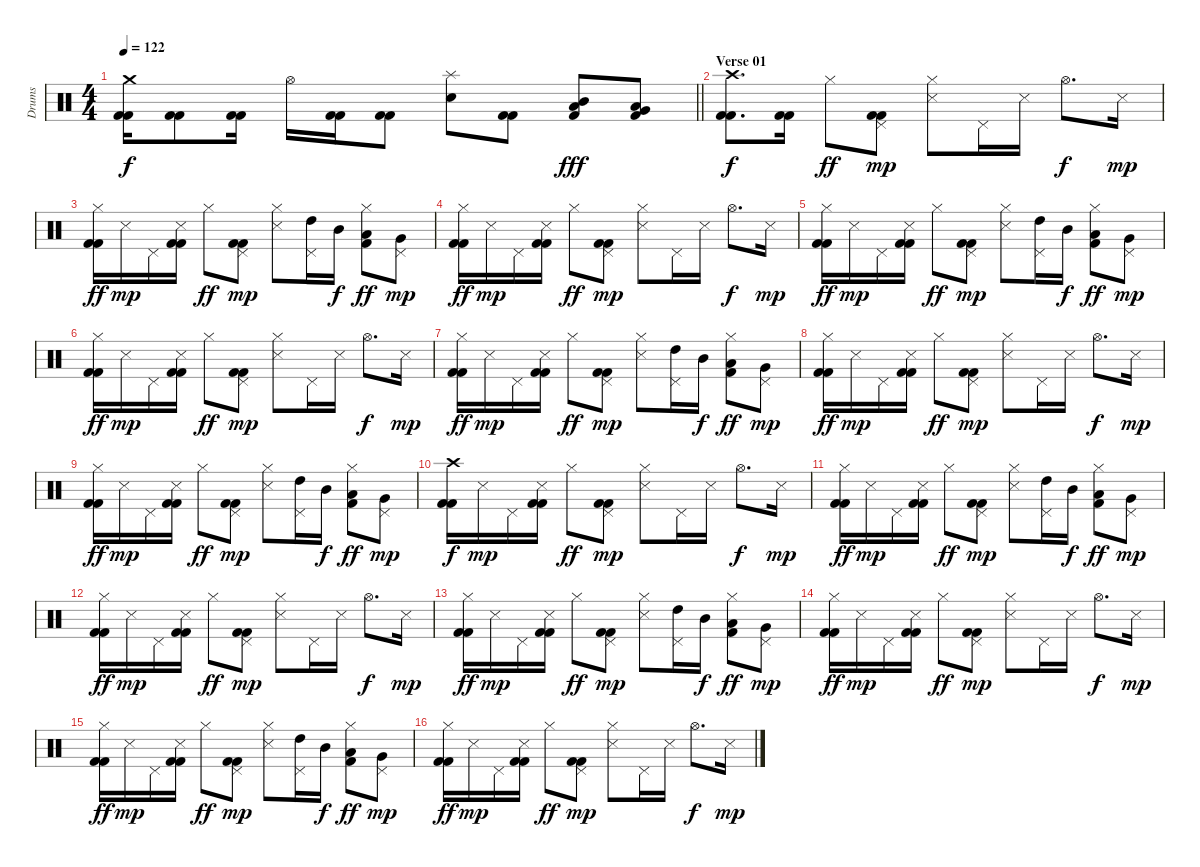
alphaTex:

\track ("Drums" "Drums") {instrument percussion}
\staff {score}
\articulation defaults
\ts (4 4)
\tempo 122
\clef neutral
\barLineRight lightlight
\ks c
("Crash medium (hit)" "Kick (hit) 2" "Kick (hit) 2").16{dy f} ("Kick (hit) 2" "Kick (hit) 2").8 ("Kick (hit) 2" "Kick (hit) 2").16 "Hi-Hat (open)".16 ("Kick (hit) 2" "Kick (hit) 2").16 ("Kick (hit) 2" "Kick (hit) 2").8 ("Splash (hit)" "Electric Snare (hit)").8 ("Kick (hit) 2" "Kick (hit) 2").8 ("Mid Tom (hit)" "Low Tom (hit)" "Kick (hit) 2").8{dy fff} ("Low Tom (hit)" "Very Low Tom (hit)" "Kick (hit) 2").8 |
\section ("" "Verse 01")
("Crash high (hit)" "Kick (hit) 2" "Kick (hit) 2").8{d dy f} ("Kick (hit) 2" "Kick (hit) 2").16 "Hi-Hat (closed)".8{dy ff} ("Pedal Hi-Hat (hit)" "Kick (hit) 2" "Kick (hit) 2").8{dy mp} ("Hi-Hat (closed)" "Snare (side stick) 3").8 "Pedal Hi-Hat (hit)".16 "Snare (side stick) 3".16 "Hi-Hat (open)".8{d dy f} "Snare (side stick) 3".16{dy mp} |
("Hi-Hat (closed)" "Kick (hit) 2" "Kick (hit) 2").16{dy ff} "Snare (side stick) 3".16{dy mp} "Pedal Hi-Hat (hit)".16 ("Snare (side stick) 3" "Kick (hit) 2" "Kick (hit) 2").16 "Hi-Hat (closed)".8{dy ff} ("Pedal Hi-Hat (hit)" "Kick (hit) 2" "Kick (hit) 2").8{dy mp} ("Hi-Hat (closed)" "Snare (side stick) 3").8 ("Pedal Hi-Hat (hit)" "High Tom (hit)").16 "Mid Tom (hit)".16{dy f} ("Hi-Hat (closed)" "Low Tom (hit)" "Kick (hit) 2").8{dy ff} ("Pedal Hi-Hat (hit)" "Very Low Tom (hit)").8{dy mp} |
("Hi-Hat (closed)" "Kick (hit) 2" "Kick (hit) 2").16{dy ff} "Snare (side stick) 3".16{dy mp} "Pedal Hi-Hat (hit)".16 ("Snare (side stick) 3" "Kick (hit) 2" "Kick (hit) 2").16 "Hi-Hat (closed)".8{dy ff} ("Pedal Hi-Hat (hit)" "Kick (hit) 2" "Kick (hit) 2").8{dy mp} ("Hi-Hat (closed)" "Snare (side stick) 3").8 "Pedal Hi-Hat (hit)".16 "Snare (side stick) 3".16 "Hi-Hat (open)".8{d dy f} "Snare (side stick) 3".16{dy mp} |
("Hi-Hat (closed)" "Kick (hit) 2" "Kick (hit) 2").16{dy ff} "Snare (side stick) 3".16{dy mp} "Pedal Hi-Hat (hit)".16 ("Snare (side stick) 3" "Kick (hit) 2" "Kick (hit) 2").16 "Hi-Hat (closed)".8{dy ff} ("Pedal Hi-Hat (hit)" "Kick (hit) 2" "Kick (hit) 2").8{dy mp} ("Hi-Hat (closed)" "Snare (side stick) 3").8 ("Pedal Hi-Hat (hit)" "High Tom (hit)").16 "Mid Tom (hit)".16{dy f} ("Hi-Hat (closed)" "Low Tom (hit)" "Kick (hit) 2").8{dy ff} ("Pedal Hi-Hat (hit)" "Very Low Tom (hit)").8{dy mp} |
("Hi-Hat (closed)" "Kick (hit) 2" "Kick (hit) 2").16{dy ff} "Snare (side stick) 3".16{dy mp} "Pedal Hi-Hat (hit)".16 ("Snare (side stick) 3" "Kick (hit) 2" "Kick (hit) 2").16 "Hi-Hat (closed)".8{dy ff} ("Pedal Hi-Hat (hit)" "Kick (hit) 2" "Kick (hit) 2").8{dy mp} ("Hi-Hat (closed)" "Snare (side stick) 3").8 "Pedal Hi-Hat (hit)".16 "Snare (side stick) 3".16 "Hi-Hat (open)".8{d dy f} "Snare (side stick) 3".16{dy mp} |
("Hi-Hat (closed)" "Kick (hit) 2" "Kick (hit) 2").16{dy ff} "Snare (side stick) 3".16{dy mp} "Pedal Hi-Hat (hit)".16 ("Snare (side stick) 3" "Kick (hit) 2" "Kick (hit) 2").16 "Hi-Hat (closed)".8{dy ff} ("Pedal Hi-Hat (hit)" "Kick (hit) 2" "Kick (hit) 2").8{dy mp} ("Hi-Hat (closed)" "Snare (side stick) 3").8 ("Pedal Hi-Hat (hit)" "High Tom (hit)").16 "Mid Tom (hit)".16{dy f} ("Hi-Hat (closed)" "Low Tom (hit)" "Kick (hit) 2").8{dy ff} ("Pedal Hi-Hat (hit)" "Very Low Tom (hit)").8{dy mp} |
("Hi-Hat (closed)" "Kick (hit) 2" "Kick (hit) 2").16{dy ff} "Snare (side stick) 3".16{dy mp} "Pedal Hi-Hat (hit)".16 ("Snare (side stick) 3" "Kick (hit) 2" "Kick (hit) 2").16 "Hi-Hat (closed)".8{dy ff} ("Pedal Hi-Hat (hit)" "Kick (hit) 2" "Kick (hit) 2").8{dy mp} ("Hi-Hat (closed)" "Snare (side stick) 3").8 "Pedal Hi-Hat (hit)".16 "Snare (side stick) 3".16 "Hi-Hat (open)".8{d dy f} "Snare (side stick) 3".16{dy mp} |
("Hi-Hat (closed)" "Kick (hit) 2" "Kick (hit) 2").16{dy ff} "Snare (side stick) 3".16{dy mp} "Pedal Hi-Hat (hit)".16 ("Snare (side stick) 3" "Kick (hit) 2" "Kick (hit) 2").16 "Hi-Hat (closed)".8{dy ff} ("Pedal Hi-Hat (hit)" "Kick (hit) 2" "Kick (hit) 2").8{dy mp} ("Hi-Hat (closed)" "Snare (side stick) 3").8 ("Pedal Hi-Hat (hit)" "High Tom (hit)").16 "Mid Tom (hit)".16{dy f} ("Hi-Hat (closed)" "Low Tom (hit)" "Kick (hit) 2").8{dy ff} ("Pedal Hi-Hat (hit)" "Very Low Tom (hit)").8{dy mp} |
("Crash high (hit)" "Kick (hit) 2" "Kick (hit) 2").16{dy f} "Snare (side stick) 3".16{dy mp} "Pedal Hi-Hat (hit)".16 ("Snare (side stick) 3" "Kick (hit) 2" "Kick (hit) 2").16 "Hi-Hat (closed)".8{dy ff} ("Pedal Hi-Hat (hit)" "Kick (hit) 2" "Kick (hit) 2").8{dy mp} ("Hi-Hat (closed)" "Snare (side stick) 3").8 "Pedal Hi-Hat (hit)".16 "Snare (side stick) 3".16 "Hi-Hat (open)".8{d dy f} "Snare (side stick) 3".16{dy mp} |
("Hi-Hat (closed)" "Kick (hit) 2" "Kick (hit) 2").16{dy ff} "Snare (side stick) 3".16{dy mp} "Pedal Hi-Hat (hit)".16 ("Snare (side stick) 3" "Kick (hit) 2" "Kick (hit) 2").16 "Hi-Hat (closed)".8{dy ff} ("Pedal Hi-Hat (hit)" "Kick (hit) 2" "Kick (hit) 2").8{dy mp} ("Hi-Hat (closed)" "Snare (side stick) 3").8 ("Pedal Hi-Hat (hit)" "High Tom (hit)").16 "Mid Tom (hit)".16{dy f} ("Hi-Hat (closed)" "Low Tom (hit)" "Kick (hit) 2").8{dy ff} ("Pedal Hi-Hat (hit)" "Very Low Tom (hit)").8{dy mp} |
("Hi-Hat (closed)" "Kick (hit) 2" "Kick (hit) 2").16{dy ff} "Snare (side stick) 3".16{dy mp} "Pedal Hi-Hat (hit)".16 ("Snare (side stick) 3" "Kick (hit) 2" "Kick (hit) 2").16 "Hi-Hat (closed)".8{dy ff} ("Pedal Hi-Hat (hit)" "Kick (hit) 2" "Kick (hit) 2").8{dy mp} ("Hi-Hat (closed)" "Snare (side stick) 3").8 "Pedal Hi-Hat (hit)".16 "Snare (side stick) 3".16 "Hi-Hat (open)".8{d dy f} "Snare (side stick) 3".16{dy mp} |
("Hi-Hat (closed)" "Kick (hit) 2" "Kick (hit) 2").16{dy ff} "Snare (side stick) 3".16{dy mp} "Pedal Hi-Hat (hit)".16 ("Snare (side stick) 3" "Kick (hit) 2" "Kick (hit) 2").16 "Hi-Hat (closed)".8{dy ff} ("Pedal Hi-Hat (hit)" "Kick (hit) 2" "Kick (hit) 2").8{dy mp} ("Hi-Hat (closed)" "Snare (side stick) 3").8 ("Pedal Hi-Hat (hit)" "High Tom (hit)").16 "Mid Tom (hit)".16{dy f} ("Hi-Hat (closed)" "Low Tom (hit)" "Kick (hit) 2").8{dy ff} ("Pedal Hi-Hat (hit)" "Very Low Tom (hit)").8{dy mp} |
("Hi-Hat (closed)" "Kick (hit) 2" "Kick (hit) 2").16{dy ff} "Snare (side stick) 3".16{dy mp} "Pedal Hi-Hat (hit)".16 ("Snare (side stick) 3" "Kick (hit) 2" "Kick (hit) 2").16 "Hi-Hat (closed)".8{dy ff} ("Pedal Hi-Hat (hit)" "Kick (hit) 2" "Kick (hit) 2").8{dy mp} ("Hi-Hat (closed)" "Snare (side stick) 3").8 "Pedal Hi-Hat (hit)".16 "Snare (side stick) 3".16 "Hi-Hat (open)".8{d dy f} "Snare (side stick) 3".16{dy mp} |
("Hi-Hat (closed)" "Kick (hit) 2" "Kick (hit) 2").16{dy ff} "Snare (side stick) 3".16{dy mp} "Pedal Hi-Hat (hit)".16 ("Snare (side stick) 3" "Kick (hit) 2" "Kick (hit) 2").16 "Hi-Hat (closed)".8{dy ff} ("Pedal Hi-Hat (hit)" "Kick (hit) 2" "Kick (hit) 2").8{dy mp} ("Hi-Hat (closed)" "Snare (side stick) 3").8 ("Pedal Hi-Hat (hit)" "High Tom (hit)").16 "Mid Tom (hit)".16{dy f} ("Hi-Hat (closed)" "Low Tom (hit)" "Kick (hit) 2").8{dy ff} ("Pedal Hi-Hat (hit)" "Very Low Tom (hit)").8{dy mp} |
("Hi-Hat (closed)" "Kick (hit) 2" "Kick (hit) 2").16{dy ff} "Snare (side stick) 3".16{dy mp} "Pedal Hi-Hat (hit)".16 ("Snare (side stick) 3" "Kick (hit) 2" "Kick (hit) 2").16 "Hi-Hat (closed)".8{dy ff} ("Pedal Hi-Hat (hit)" "Kick (hit) 2" "Kick (hit) 2").8{dy mp} ("Hi-Hat (closed)" "Snare (side stick) 3").8 "Pedal Hi-Hat (hit)".16 "Snare (side stick) 3".16 "Hi-Hat (open)".8{d dy f} "Snare (side stick) 3".16{dy mp}
